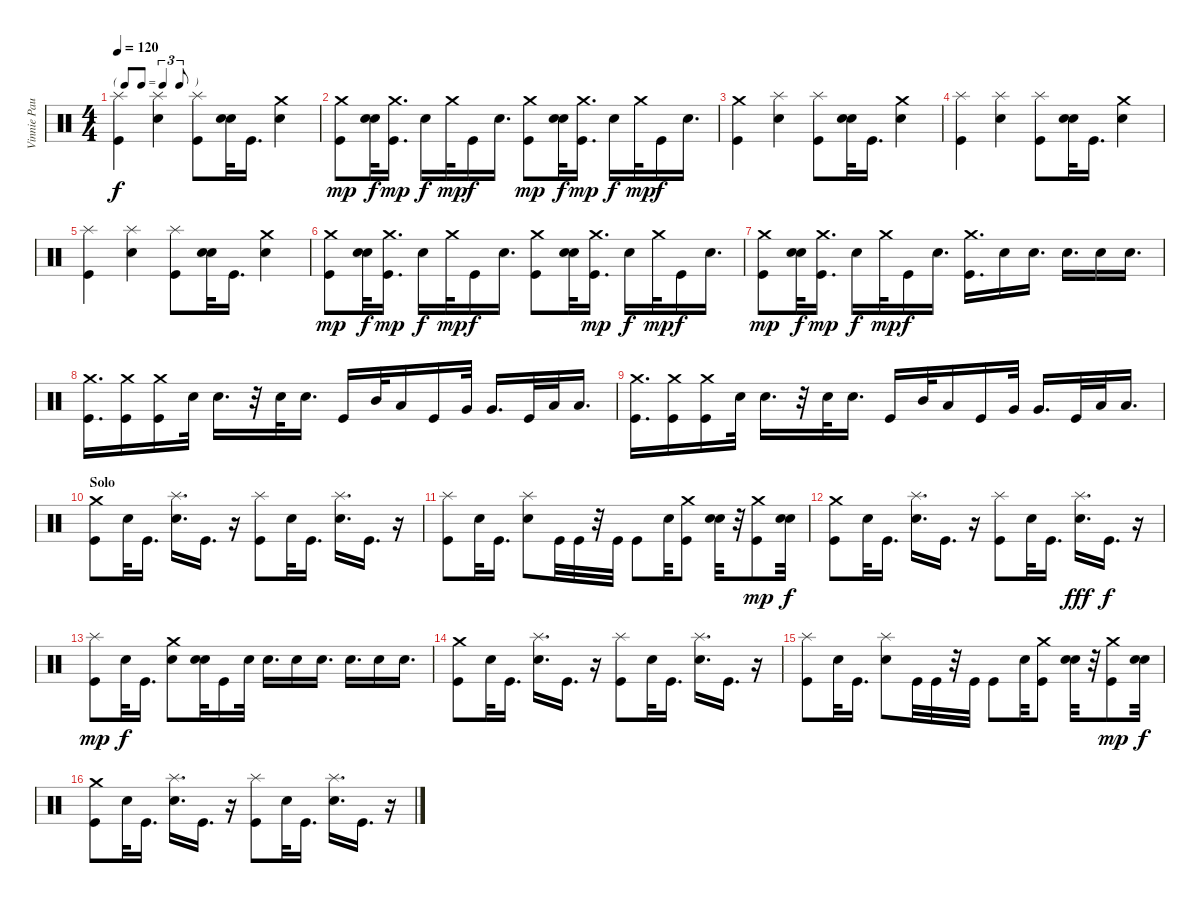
\track ("Vinnie Paul" "Vinnie Pau") {instrument percussion}
\staff {score}
\articulation defaults
\ts (4 4)
\tf triplet8th
\tempo 120
\clef neutral
\ks c
("Kick (hit)" "Splash (hit)").4{dy f} ("Snare (hit) 2" "Splash (hit)").4 ("Kick (hit)" "Splash (hit)").8 ("Snare (hit)" "Snare (hit)").32 "Kick (hit)".16{d} ("Snare (hit) 2" "Crash medium (hit)").4 |
("Crash medium (hit)" "Kick (hit)").8{dy mp} ("Snare (hit)" "Snare (hit)").32{dy f} ("Crash medium (hit)" "Kick (hit)").16{d dy mp} "Snare (hit) 2".16{dy f} "Crash medium (hit)".32{dy mp} "Kick (hit)".16{dy f} "Snare (hit) 2".16{d} ("Crash medium (hit)" "Kick (hit)").8{dy mp} ("Snare (hit)" "Snare (hit)").32{dy f} ("Crash medium (hit)" "Kick (hit)").16{d dy mp} "Snare (hit) 2".16{dy f} "Crash medium (hit)".32{dy mp} "Kick (hit)".16{dy f} "Snare (hit) 2".16{d} |
("Kick (hit)" "Crash medium (hit)").4 ("Snare (hit) 2" "Splash (hit)").4 ("Kick (hit)" "Splash (hit)").8 ("Snare (hit)" "Snare (hit)").32 "Kick (hit)".16{d} ("Snare (hit) 2" "Crash medium (hit)").4 |
("Kick (hit)" "Splash (hit)").4 ("Snare (hit) 2" "Splash (hit)").4 ("Kick (hit)" "Splash (hit)").8 ("Snare (hit)" "Snare (hit)").32 "Kick (hit)".16{d} ("Snare (hit) 2" "Crash medium (hit)").4 |
("Kick (hit)" "Splash (hit)").4 ("Snare (hit) 2" "Splash (hit)").4 ("Kick (hit)" "Splash (hit)").8 ("Snare (hit)" "Snare (hit)").32 "Kick (hit)".16{d} ("Snare (hit) 2" "Crash medium (hit)").4 |
("Crash medium (hit)" "Kick (hit)").8{dy mp} ("Snare (hit)" "Snare (hit)").32{dy f} ("Crash medium (hit)" "Kick (hit)").16{d dy mp} "Snare (hit) 2".16{dy f} "Crash medium (hit)".32{dy mp} "Kick (hit)".16{dy f} "Snare (hit) 2".16{d} ("Kick (hit)" "Crash medium (hit)").8 ("Snare (hit)" "Snare (hit)").32 ("Crash medium (hit)" "Kick (hit)").16{d dy mp} "Snare (hit) 2".16{dy f} "Crash medium (hit)".32{dy mp} "Kick (hit)".16{dy f} "Snare (hit) 2".16{d} |
("Crash medium (hit)" "Kick (hit)").8{dy mp} ("Snare (hit)" "Snare (hit)").32{dy f} ("Crash medium (hit)" "Kick (hit)").16{d dy mp} "Snare (hit) 2".16{dy f} "Crash medium (hit)".32{dy mp} "Kick (hit)".16{dy f} "Snare (hit) 2".16{d} ("Kick (hit)" "Crash medium (hit)").16{d} "Snare (hit) 2".16 "Snare (hit) 2".16{d} "Snare (hit) 2".16{d} "Snare (hit) 2".16 "Snare (hit) 2".16{d} |
("Kick (hit)" "Crash medium (hit)").16{d} ("Kick (hit)" "Crash medium (hit)").16 ("Kick (hit)" "Crash medium (hit)").16 "Snare (hit) 2".32 "Snare (hit) 2".16{d} r.32 "Snare (hit) 2".32 "Snare (hit) 2".16{d} "Kick (hit)".16 "Mid Tom (hit)".32 "Low Tom (hit)".16 "Kick (hit)".16 "Very Low Tom (hit)".32 "Very Low Tom (hit)".16{d} "Kick (hit)".32 "Low Floor Tom (hit)".32 "Low Floor Tom (hit)".16{d} |
("Kick (hit)" "Crash medium (hit)").16{d} ("Kick (hit)" "Crash medium (hit)").16 ("Kick (hit)" "Crash medium (hit)").16 "Snare (hit) 2".32 "Snare (hit) 2".16{d} r.32 "Snare (hit) 2".32 "Snare (hit) 2".16{d} "Kick (hit)".16 "Mid Tom (hit)".32 "Low Tom (hit)".16 "Kick (hit)".16 "Very Low Tom (hit)".32 "Very Low Tom (hit)".16{d} "Kick (hit)".32 "Low Floor Tom (hit)".32 "Low Floor Tom (hit)".16{d} |
\section ("" "Solo")
("Kick (hit)" "Crash medium (hit)").8 "Snare (hit)".32 "Kick (hit)".16{d} ("Snare (hit) 2" "Splash (hit)").16{d} "Kick (hit)".16{d} r.16 ("Kick (hit)" "Splash (hit)").8 "Snare (hit)".32 "Kick (hit)".16{d} ("Snare (hit) 2" "Splash (hit)").16{d} "Kick (hit)".16{d} r.16 |
("Kick (hit)" "Splash (hit)").8 "Snare (hit)".32 "Kick (hit)".16{d} ("Snare (hit) 2" "Splash (hit)").8 "Kick (hit)".32 "Kick (hit)".32 r.32 "Kick (hit)".32 "Kick (hit)".8 "Snare (hit)".32 ("Kick (hit)" "Crash medium (hit)").8 ("Snare (hit)" "Snare (hit)").32 r.32 ("Crash medium (hit)" "Kick (hit)").8{dy mp} ("Snare (hit)" "Snare (hit)").32{dy f} |
("Kick (hit)" "Crash medium (hit)").8 "Snare (hit)".32 "Kick (hit)".16{d} ("Snare (hit) 2" "Splash (hit)").16{d} "Kick (hit)".16{d} r.16 ("Kick (hit)" "Splash (hit)").8 "Snare (hit)".32 "Kick (hit)".16{d} ("Snare (hit) 2" "Splash (hit)").16{d dy fff} "Kick (hit)".16{d dy f} r.16 |
("Splash (hit)" "Kick (hit)").8{dy mp} "Snare (hit)".32{dy f} "Kick (hit)".16{d} ("Snare (hit) 2" "Crash medium (hit)").8 ("Snare (hit)" "Snare (hit)").32 "Kick (hit)".16 "Snare (hit) 2".32 "Snare (hit) 2".16{d} "Snare (hit) 2".16 "Snare (hit) 2".16{d} "Snare (hit) 2".16{d} "Snare (hit) 2".16 "Snare (hit) 2".16{d} |
("Kick (hit)" "Crash medium (hit)").8 "Snare (hit)".32 "Kick (hit)".16{d} ("Snare (hit) 2" "Splash (hit)").16{d} "Kick (hit)".16{d} r.16 ("Kick (hit)" "Splash (hit)").8 "Snare (hit)".32 "Kick (hit)".16{d} ("Snare (hit) 2" "Splash (hit)").16{d} "Kick (hit)".16{d} r.16 |
("Kick (hit)" "Splash (hit)").8 "Snare (hit)".32 "Kick (hit)".16{d} ("Snare (hit) 2" "Splash (hit)").8 "Kick (hit)".32 "Kick (hit)".32 r.32 "Kick (hit)".32 "Kick (hit)".8 "Snare (hit)".32 ("Kick (hit)" "Crash medium (hit)").8 ("Snare (hit)" "Snare (hit)").32 r.32 ("Crash medium (hit)" "Kick (hit)").8{dy mp} ("Snare (hit)" "Snare (hit)").32{dy f} |
("Kick (hit)" "Crash medium (hit)").8 "Snare (hit)".32 "Kick (hit)".16{d} ("Snare (hit) 2" "Splash (hit)").16{d} "Kick (hit)".16{d} r.16 ("Kick (hit)" "Splash (hit)").8 "Snare (hit)".32 "Kick (hit)".16{d} ("Snare (hit) 2" "Splash (hit)").16{d} "Kick (hit)".16{d} r.16
